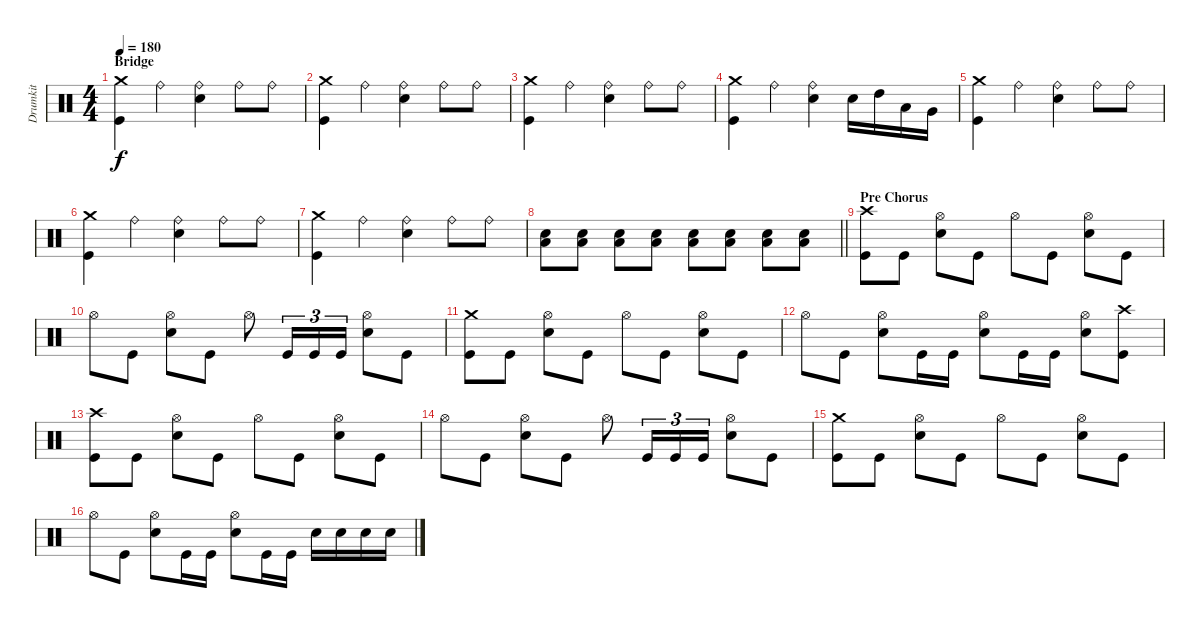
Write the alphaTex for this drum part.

\track ("Drumkit" "Drumkit") {instrument percussion}
\staff {score}
\articulation defaults
\ts (4 4)
\section ("" "Bridge")
\tempo 180
\clef neutral
\ks c
("Crash medium (hit)" "Kick (hit)").4{dy f} "Ride (bell)".4 ("Ride (bell)" "Snare (hit) 2").4 "Ride (bell)".8 "Ride (bell)".8 |
("Crash medium (hit)" "Kick (hit)").4 "Ride (bell)".4 ("Ride (bell)" "Snare (hit) 2").4 "Ride (bell)".8 "Ride (bell)".8 |
("Crash medium (hit)" "Kick (hit)").4 "Ride (bell)".4 ("Ride (bell)" "Snare (hit) 2").4 "Ride (bell)".8 "Ride (bell)".8 |
("Crash medium (hit)" "Kick (hit)").4 "Ride (bell)".4 ("Ride (bell)" "Snare (hit) 2").4 "Snare (hit) 2".16 "High Tom (hit)".16 "Low Tom (hit)".16 "Very Low Tom (hit)".16 |
("Crash medium (hit)" "Kick (hit)").4 "Ride (bell)".4 ("Ride (bell)" "Snare (hit) 2").4 "Ride (bell)".8 "Ride (bell)".8 |
("Crash medium (hit)" "Kick (hit)").4 "Ride (bell)".4 ("Ride (bell)" "Snare (hit) 2").4 "Ride (bell)".8 "Ride (bell)".8 |
("Crash medium (hit)" "Kick (hit)").4 "Ride (bell)".4 ("Ride (bell)" "Snare (hit) 2").4 "Ride (bell)".8 "Ride (bell)".8 |
\barLineRight lightlight
("Snare (hit) 2" "Low Floor Tom (hit)").8 ("Snare (hit) 2" "Low Floor Tom (hit)").8 ("Snare (hit) 2" "Low Floor Tom (hit)").8 ("Snare (hit) 2" "Low Floor Tom (hit)").8 ("Snare (hit) 2" "Low Floor Tom (hit)").8 ("Snare (hit) 2" "Low Floor Tom (hit)").8 ("Snare (hit) 2" "Low Floor Tom (hit)").8 ("Snare (hit) 2" "Low Floor Tom (hit)").8 |
\section ("" "Pre Chorus")
("Crash high (hit)" "Kick (hit)").8 "Kick (hit)".8 ("Hi-Hat (open)" "Snare (hit) 2").8 "Kick (hit)".8 "Hi-Hat (open)".8 "Kick (hit)".8 ("Hi-Hat (open)" "Snare (hit) 2").8 "Kick (hit)".8 |
"Hi-Hat (open)".8 "Kick (hit)".8 ("Hi-Hat (open)" "Snare (hit) 2").8 "Kick (hit)".8 "Hi-Hat (open)".8 "Kick (hit)".16{tu (3 2)} "Kick (hit)".16{tu (3 2)} "Kick (hit)".16{tu (3 2)} ("Hi-Hat (open)" "Snare (hit) 2").8 "Kick (hit)".8 |
("Crash medium (hit)" "Kick (hit)").8 "Kick (hit)".8 ("Hi-Hat (open)" "Snare (hit) 2").8 "Kick (hit)".8 "Hi-Hat (open)".8 "Kick (hit)".8 ("Hi-Hat (open)" "Snare (hit) 2").8 "Kick (hit)".8 |
"Hi-Hat (open)".8 "Kick (hit)".8 ("Hi-Hat (open)" "Snare (hit) 2").8 "Kick (hit)".16 "Kick (hit)".16 ("Hi-Hat (open)" "Snare (hit) 2").8 "Kick (hit)".16 "Kick (hit)".16 ("Hi-Hat (open)" "Snare (hit) 2").8 ("Crash high (hit)" "Kick (hit)").8 |
("Crash high (hit)" "Kick (hit)").8 "Kick (hit)".8 ("Hi-Hat (open)" "Snare (hit) 2").8 "Kick (hit)".8 "Hi-Hat (open)".8 "Kick (hit)".8 ("Hi-Hat (open)" "Snare (hit) 2").8 "Kick (hit)".8 |
"Hi-Hat (open)".8 "Kick (hit)".8 ("Hi-Hat (open)" "Snare (hit) 2").8 "Kick (hit)".8 "Hi-Hat (open)".8 "Kick (hit)".16{tu (3 2)} "Kick (hit)".16{tu (3 2)} "Kick (hit)".16{tu (3 2)} ("Hi-Hat (open)" "Snare (hit) 2").8 "Kick (hit)".8 |
("Crash medium (hit)" "Kick (hit)").8 "Kick (hit)".8 ("Hi-Hat (open)" "Snare (hit) 2").8 "Kick (hit)".8 "Hi-Hat (open)".8 "Kick (hit)".8 ("Hi-Hat (open)" "Snare (hit) 2").8 "Kick (hit)".8 |
"Hi-Hat (open)".8 "Kick (hit)".8 ("Hi-Hat (open)" "Snare (hit) 2").8 "Kick (hit)".16 "Kick (hit)".16 ("Hi-Hat (open)" "Snare (hit) 2").8 "Kick (hit)".16 "Kick (hit)".16 "Snare (hit) 2".16 "Snare (hit) 2".16 "Snare (hit) 2".16 "Snare (hit) 2".16
